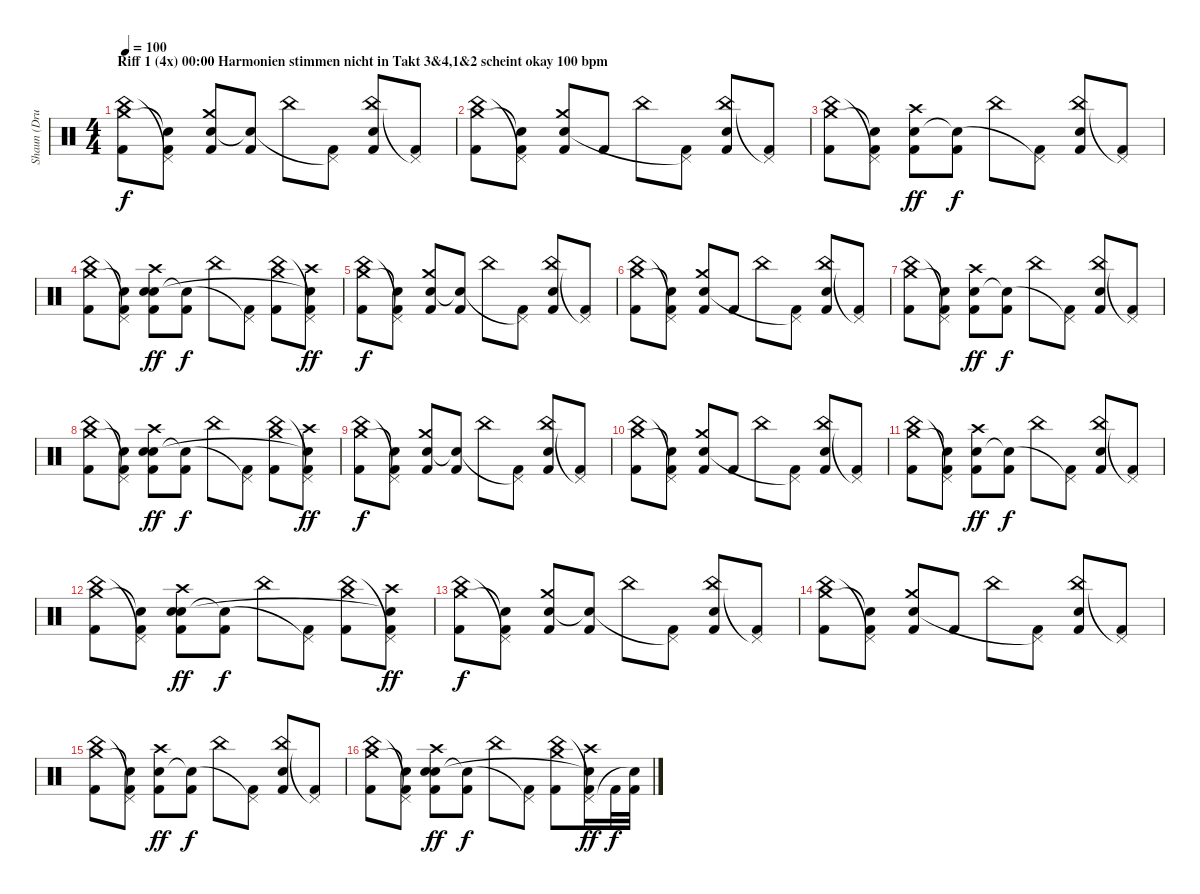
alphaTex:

\track ("Shaun (Drums Of DOOM)" "Shaun (Dru") {instrument percussion}
\staff {score}
\articulation defaults
\ts (4 4)
\section ("" "Riff 1 (4x) 00:00 Harmonien stimmen nicht in Takt 3&4,1&2 scheint okay 100 bpm")
\tempo 100
\clef neutral
\ks c
("Kick (hit) 2" "China (hit)" "Crash medium (hit)").8{dy f} ("Kick (hit) 2" "Pedal Hi-Hat (hit)"{t} "Snare (hit)"{t}).8 ("Kick (hit) 2" "Electric Snare (hit)" "Crash medium (hit)").8 ("Kick (hit) 2" "Snare (hit)"{t}).8 "China (hit)".8 ("Kick (hit) 2" "Pedal Hi-Hat (hit)"{t}).8 ("Kick (hit) 2" "China (hit)" "Electric Snare (hit)").8 ("Kick (hit) 2" "Pedal Hi-Hat (hit)"{t}).8 |
("Kick (hit) 2" "China (hit)" "Crash medium (hit)").8 ("Kick (hit) 2" "Pedal Hi-Hat (hit)"{t} "Snare (hit)"{t}).8 ("Kick (hit) 2" "Electric Snare (hit)" "Crash medium (hit)").8 "Kick (hit) 2".8 "China (hit)".8 ("Kick (hit) 2" "Pedal Hi-Hat (hit)"{t}).8 ("Kick (hit) 2" "China (hit)" "Electric Snare (hit)").8 ("Kick (hit) 2" "Pedal Hi-Hat (hit)"{t}).8 |
("Kick (hit) 2" "China (hit)" "Crash medium (hit)").8 ("Kick (hit) 2" "Pedal Hi-Hat (hit)"{t} "Snare (hit)"{t}).8 ("Kick (hit) 2" "Electric Snare (hit)" "Crash high (hit)").8{dy ff} ("Kick (hit) 2" "Snare (hit)"{t}).8{dy f} "China (hit)".8 ("Kick (hit) 2" "Pedal Hi-Hat (hit)"{t}).8 ("Kick (hit) 2" "China (hit)" "Electric Snare (hit)").8 ("Kick (hit) 2" "Pedal Hi-Hat (hit)"{t}).8 |
("Kick (hit) 2" "China (hit)" "Crash medium (hit)").8 ("Kick (hit) 2" "Pedal Hi-Hat (hit)"{t} "Snare (hit)"{t}).8 ("Kick (hit) 2" "Electric Snare (hit)" "Crash high (hit)" "Snare (hit)").8{dy ff} ("Kick (hit) 2" "Snare (hit)"{t}).8{dy f} "China (hit)".8 ("Kick (hit) 2" "Pedal Hi-Hat (hit)"{t}).8 ("Kick (hit) 2" "China (hit)" "Crash medium (hit)").8 ("Kick (hit) 2" "Pedal Hi-Hat (hit)"{t} "Crash high (hit)" "Snare (hit)"{t}).8{dy ff} |
("Kick (hit) 2" "China (hit)" "Crash medium (hit)").8{dy f} ("Kick (hit) 2" "Pedal Hi-Hat (hit)"{t} "Snare (hit)"{t}).8 ("Kick (hit) 2" "Electric Snare (hit)" "Crash medium (hit)").8 ("Kick (hit) 2" "Snare (hit)"{t}).8 "China (hit)".8 ("Kick (hit) 2" "Pedal Hi-Hat (hit)"{t}).8 ("Kick (hit) 2" "China (hit)" "Electric Snare (hit)").8 ("Kick (hit) 2" "Pedal Hi-Hat (hit)"{t}).8 |
("Kick (hit) 2" "China (hit)" "Crash medium (hit)").8 ("Kick (hit) 2" "Pedal Hi-Hat (hit)"{t} "Snare (hit)"{t}).8 ("Kick (hit) 2" "Electric Snare (hit)" "Crash medium (hit)").8 "Kick (hit) 2".8 "China (hit)".8 ("Kick (hit) 2" "Pedal Hi-Hat (hit)"{t}).8 ("Kick (hit) 2" "China (hit)" "Electric Snare (hit)").8 ("Kick (hit) 2" "Pedal Hi-Hat (hit)"{t}).8 |
("Kick (hit) 2" "China (hit)" "Crash medium (hit)").8 ("Kick (hit) 2" "Pedal Hi-Hat (hit)"{t} "Snare (hit)"{t}).8 ("Kick (hit) 2" "Electric Snare (hit)" "Crash high (hit)").8{dy ff} ("Kick (hit) 2" "Snare (hit)"{t}).8{dy f} "China (hit)".8 ("Kick (hit) 2" "Pedal Hi-Hat (hit)"{t}).8 ("Kick (hit) 2" "China (hit)" "Electric Snare (hit)").8 ("Kick (hit) 2" "Pedal Hi-Hat (hit)"{t}).8 |
("Kick (hit) 2" "China (hit)" "Crash medium (hit)").8 ("Kick (hit) 2" "Pedal Hi-Hat (hit)"{t} "Snare (hit)"{t}).8 ("Kick (hit) 2" "Electric Snare (hit)" "Crash high (hit)" "Snare (hit)").8{dy ff} ("Kick (hit) 2" "Snare (hit)"{t}).8{dy f} "China (hit)".8 ("Kick (hit) 2" "Pedal Hi-Hat (hit)"{t}).8 ("Kick (hit) 2" "China (hit)" "Crash medium (hit)").8 ("Kick (hit) 2" "Pedal Hi-Hat (hit)"{t} "Crash high (hit)" "Snare (hit)"{t}).8{dy ff} |
("Kick (hit) 2" "China (hit)" "Crash medium (hit)").8{dy f} ("Kick (hit) 2" "Pedal Hi-Hat (hit)"{t} "Snare (hit)"{t}).8 ("Kick (hit) 2" "Electric Snare (hit)" "Crash medium (hit)").8 ("Kick (hit) 2" "Snare (hit)"{t}).8 "China (hit)".8 ("Kick (hit) 2" "Pedal Hi-Hat (hit)"{t}).8 ("Kick (hit) 2" "China (hit)" "Electric Snare (hit)").8 ("Kick (hit) 2" "Pedal Hi-Hat (hit)"{t}).8 |
("Kick (hit) 2" "China (hit)" "Crash medium (hit)").8 ("Kick (hit) 2" "Pedal Hi-Hat (hit)"{t} "Snare (hit)"{t}).8 ("Kick (hit) 2" "Electric Snare (hit)" "Crash medium (hit)").8 "Kick (hit) 2".8 "China (hit)".8 ("Kick (hit) 2" "Pedal Hi-Hat (hit)"{t}).8 ("Kick (hit) 2" "China (hit)" "Electric Snare (hit)").8 ("Kick (hit) 2" "Pedal Hi-Hat (hit)"{t}).8 |
("Kick (hit) 2" "China (hit)" "Crash medium (hit)").8 ("Kick (hit) 2" "Pedal Hi-Hat (hit)"{t} "Snare (hit)"{t}).8 ("Kick (hit) 2" "Electric Snare (hit)" "Crash high (hit)").8{dy ff} ("Kick (hit) 2" "Snare (hit)"{t}).8{dy f} "China (hit)".8 ("Kick (hit) 2" "Pedal Hi-Hat (hit)"{t}).8 ("Kick (hit) 2" "China (hit)" "Electric Snare (hit)").8 ("Kick (hit) 2" "Pedal Hi-Hat (hit)"{t}).8 |
("Kick (hit) 2" "China (hit)" "Crash medium (hit)").8 ("Kick (hit) 2" "Pedal Hi-Hat (hit)"{t} "Snare (hit)"{t}).8 ("Kick (hit) 2" "Electric Snare (hit)" "Crash high (hit)" "Snare (hit)").8{dy ff} ("Kick (hit) 2" "Snare (hit)"{t}).8{dy f} "China (hit)".8 ("Kick (hit) 2" "Pedal Hi-Hat (hit)"{t}).8 ("Kick (hit) 2" "China (hit)" "Crash medium (hit)").8 ("Kick (hit) 2" "Pedal Hi-Hat (hit)"{t} "Crash high (hit)" "Snare (hit)"{t}).8{dy ff} |
("Kick (hit) 2" "China (hit)" "Crash medium (hit)").8{dy f} ("Kick (hit) 2" "Pedal Hi-Hat (hit)"{t} "Snare (hit)"{t}).8 ("Kick (hit) 2" "Electric Snare (hit)" "Crash medium (hit)").8 ("Kick (hit) 2" "Snare (hit)"{t}).8 "China (hit)".8 ("Kick (hit) 2" "Pedal Hi-Hat (hit)"{t}).8 ("Kick (hit) 2" "China (hit)" "Electric Snare (hit)").8 ("Kick (hit) 2" "Pedal Hi-Hat (hit)"{t}).8 |
("Kick (hit) 2" "China (hit)" "Crash medium (hit)").8 ("Kick (hit) 2" "Pedal Hi-Hat (hit)"{t} "Snare (hit)"{t}).8 ("Kick (hit) 2" "Electric Snare (hit)" "Crash medium (hit)").8 "Kick (hit) 2".8 "China (hit)".8 ("Kick (hit) 2" "Pedal Hi-Hat (hit)"{t}).8 ("Kick (hit) 2" "China (hit)" "Electric Snare (hit)").8 ("Kick (hit) 2" "Pedal Hi-Hat (hit)"{t}).8 |
("Kick (hit) 2" "China (hit)" "Crash medium (hit)").8 ("Kick (hit) 2" "Pedal Hi-Hat (hit)"{t} "Snare (hit)"{t}).8 ("Kick (hit) 2" "Electric Snare (hit)" "Crash high (hit)").8{dy ff} ("Kick (hit) 2" "Snare (hit)"{t}).8{dy f} "China (hit)".8 ("Kick (hit) 2" "Pedal Hi-Hat (hit)"{t}).8 ("Kick (hit) 2" "China (hit)" "Electric Snare (hit)").8 ("Kick (hit) 2" "Pedal Hi-Hat (hit)"{t}).8 |
("Kick (hit) 2" "China (hit)" "Crash medium (hit)").8 ("Kick (hit) 2" "Pedal Hi-Hat (hit)"{t} "Snare (hit)"{t}).8 ("Kick (hit) 2" "Electric Snare (hit)" "Crash high (hit)" "Snare (hit)").8{dy ff} ("Kick (hit) 2" "Snare (hit)"{t}).8{dy f} "China (hit)".8 ("Kick (hit) 2" "Pedal Hi-Hat (hit)"{t}).8 ("Kick (hit) 2" "China (hit)" "Crash medium (hit)").8 ("Kick (hit) 2" "Pedal Hi-Hat (hit)"{t} "Crash high (hit)" "Snare (hit)"{t}).16{dy ff} "Kick (hit) 2".32{dy f} ("Kick (hit) 2" "Snare (hit)"{t}).32
